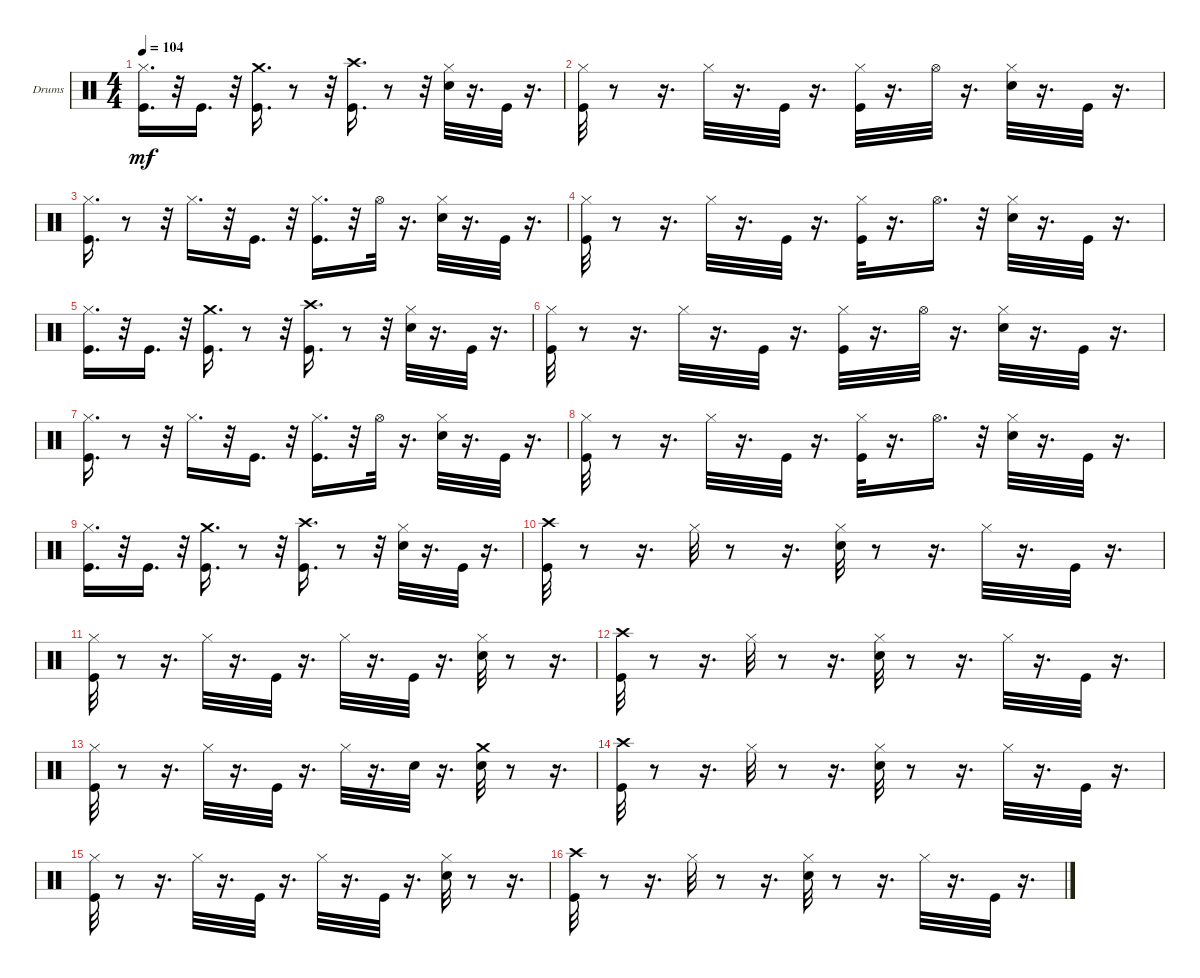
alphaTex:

\bracketExtendMode groupsimilarinstruments
\firstSystemTrackNameOrientation horizontal
\otherSystemsTrackNameOrientation horizontal
\track ("" "Drums") {instrument percussion}
\staff {score}
\articulation defaults
\ts (4 4)
\tempo 104
\clef neutral
\ks c
("Hi-Hat (closed)" "Kick (hit)").16{d dy mf} r.32 "Kick (hit)".16{d} r.32 ("Crash medium (hit)" "Kick (hit)").16{d} r.8 r.32 ("Crash high (hit)" "Kick (hit)").16{d} r.8 r.32 ("Hi-Hat (closed)" "Snare (hit) 2").32 r.16{d} "Kick (hit)".32 r.16{d} |
("Hi-Hat (closed)" "Kick (hit)").32 r.8 r.16{d} "Hi-Hat (closed)".32 r.16{d} "Kick (hit)".32 r.16{d} ("Hi-Hat (closed)" "Kick (hit)").32 r.16{d} "Hi-Hat (open)".32 r.16{d} ("Hi-Hat (closed)" "Snare (hit) 2").32 r.16{d} "Kick (hit)".32 r.16{d} |
("Hi-Hat (closed)" "Kick (hit)").16{d} r.8 r.32 "Hi-Hat (closed)".16{d} r.32 "Kick (hit)".16{d} r.32 ("Hi-Hat (closed)" "Kick (hit)").16{d} r.32 "Hi-Hat (open)".32 r.16{d} ("Hi-Hat (closed)" "Snare (hit) 2").32 r.16{d} "Kick (hit)".32 r.16{d} |
("Hi-Hat (closed)" "Kick (hit)").32 r.8 r.16{d} "Hi-Hat (closed)".32 r.16{d} "Kick (hit)".32 r.16{d} ("Hi-Hat (closed)" "Kick (hit)").32 r.16{d} "Hi-Hat (open)".16{d} r.32 ("Hi-Hat (closed)" "Snare (hit) 2").32 r.16{d} "Kick (hit)".32 r.16{d} |
("Hi-Hat (closed)" "Kick (hit)").16{d} r.32 "Kick (hit)".16{d} r.32 ("Crash medium (hit)" "Kick (hit)").16{d} r.8 r.32 ("Crash high (hit)" "Kick (hit)").16{d} r.8 r.32 ("Hi-Hat (closed)" "Snare (hit) 2").32 r.16{d} "Kick (hit)".32 r.16{d} |
("Hi-Hat (closed)" "Kick (hit)").32 r.8 r.16{d} "Hi-Hat (closed)".32 r.16{d} "Kick (hit)".32 r.16{d} ("Hi-Hat (closed)" "Kick (hit)").32 r.16{d} "Hi-Hat (open)".32 r.16{d} ("Hi-Hat (closed)" "Snare (hit) 2").32 r.16{d} "Kick (hit)".32 r.16{d} |
("Hi-Hat (closed)" "Kick (hit)").16{d} r.8 r.32 "Hi-Hat (closed)".16{d} r.32 "Kick (hit)".16{d} r.32 ("Hi-Hat (closed)" "Kick (hit)").16{d} r.32 "Hi-Hat (open)".32 r.16{d} ("Hi-Hat (closed)" "Snare (hit) 2").32 r.16{d} "Kick (hit)".32 r.16{d} |
("Hi-Hat (closed)" "Kick (hit)").32 r.8 r.16{d} "Hi-Hat (closed)".32 r.16{d} "Kick (hit)".32 r.16{d} ("Hi-Hat (closed)" "Kick (hit)").32 r.16{d} "Hi-Hat (open)".16{d} r.32 ("Hi-Hat (closed)" "Snare (hit) 2").32 r.16{d} "Kick (hit)".32 r.16{d} |
("Hi-Hat (closed)" "Kick (hit)").16{d} r.32 "Kick (hit)".16{d} r.32 ("Crash medium (hit)" "Kick (hit)").16{d} r.8 r.32 ("Crash high (hit)" "Kick (hit)").16{d} r.8 r.32 ("Hi-Hat (closed)" "Snare (hit) 2").32 r.16{d} "Kick (hit)".32 r.16{d} |
("Crash high (hit)" "Kick (hit)").32 r.8 r.16{d} "Hi-Hat (closed)".32 r.8 r.16{d} ("Snare (hit) 2" "Hi-Hat (closed)").32 r.8 r.16{d} "Hi-Hat (closed)".32 r.16{d} "Kick (hit)".32 r.16{d} |
("Kick (hit)" "Hi-Hat (closed)").32 r.8 r.16{d} "Hi-Hat (closed)".32 r.16{d} "Kick (hit)".32 r.16{d} "Hi-Hat (closed)".32 r.16{d} "Kick (hit)".32 r.16{d} ("Snare (hit) 2" "Hi-Hat (closed)").32 r.8 r.16{d} |
("Crash high (hit)" "Kick (hit)").32 r.8 r.16{d} "Hi-Hat (closed)".32 r.8 r.16{d} ("Snare (hit) 2" "Hi-Hat (closed)").32 r.8 r.16{d} "Hi-Hat (closed)".32 r.16{d} "Kick (hit)".32 r.16{d} |
("Kick (hit)" "Hi-Hat (closed)").32 r.8 r.16{d} "Hi-Hat (closed)".32 r.16{d} "Kick (hit)".32 r.16{d} "Hi-Hat (closed)".32 r.16{d} "Snare (hit) 2".32 r.16{d} ("Crash medium (hit)" "Snare (hit) 2").32 r.8 r.16{d} |
("Crash high (hit)" "Kick (hit)").32 r.8 r.16{d} "Hi-Hat (closed)".32 r.8 r.16{d} ("Snare (hit) 2" "Hi-Hat (closed)").32 r.8 r.16{d} "Hi-Hat (closed)".32 r.16{d} "Kick (hit)".32 r.16{d} |
("Kick (hit)" "Hi-Hat (closed)").32 r.8 r.16{d} "Hi-Hat (closed)".32 r.16{d} "Kick (hit)".32 r.16{d} "Hi-Hat (closed)".32 r.16{d} "Kick (hit)".32 r.16{d} ("Snare (hit) 2" "Hi-Hat (closed)").32 r.8 r.16{d} |
("Crash high (hit)" "Kick (hit)").32 r.8 r.16{d} "Hi-Hat (closed)".32 r.8 r.16{d} ("Snare (hit) 2" "Hi-Hat (closed)").32 r.8 r.16{d} "Hi-Hat (closed)".32 r.16{d} "Kick (hit)".32 r.16{d}
